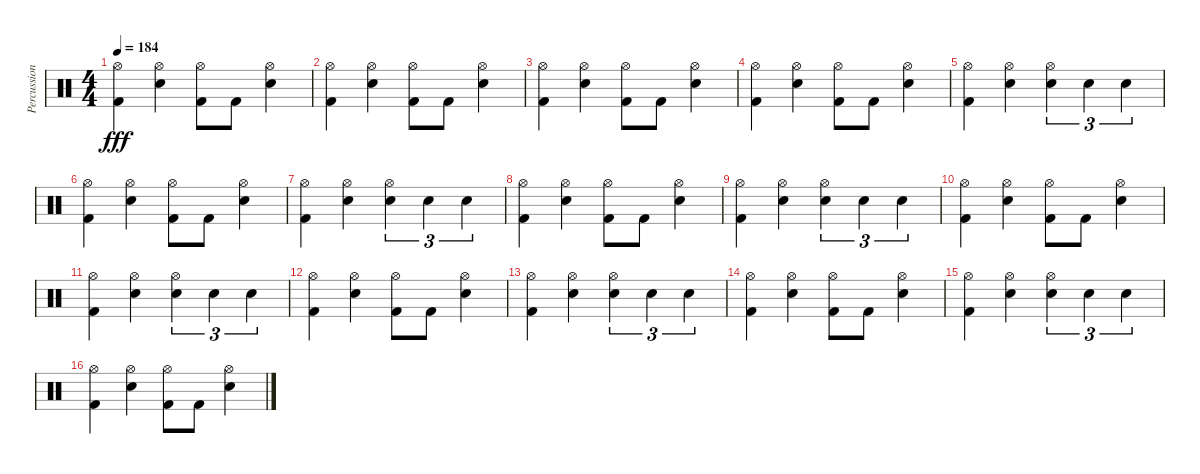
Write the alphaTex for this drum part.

\track ("Percussion" "Percussion") {instrument percussion}
\staff {score}
\articulation defaults
\ts (4 4)
\tempo 184
\clef neutral
\ks c
("Hi-Hat (open)" "Kick (hit) 2").4{dy fff} ("Hi-Hat (open)" "Snare (hit) 2").4 ("Hi-Hat (open)" "Kick (hit) 2").8 "Kick (hit) 2".8 ("Hi-Hat (open)" "Snare (hit) 2").4 |
("Hi-Hat (open)" "Kick (hit) 2").4 ("Hi-Hat (open)" "Snare (hit) 2").4 ("Hi-Hat (open)" "Kick (hit) 2").8 "Kick (hit) 2".8 ("Hi-Hat (open)" "Snare (hit) 2").4 |
("Hi-Hat (open)" "Kick (hit) 2").4 ("Hi-Hat (open)" "Snare (hit) 2").4 ("Hi-Hat (open)" "Kick (hit) 2").8 "Kick (hit) 2".8 ("Hi-Hat (open)" "Snare (hit) 2").4 |
("Hi-Hat (open)" "Kick (hit) 2").4 ("Hi-Hat (open)" "Snare (hit) 2").4 ("Hi-Hat (open)" "Kick (hit) 2").8 "Kick (hit) 2".8 ("Hi-Hat (open)" "Snare (hit) 2").4 |
("Hi-Hat (open)" "Kick (hit) 2").4 ("Hi-Hat (open)" "Snare (hit) 2").4 ("Hi-Hat (open)" "Snare (hit) 2").4{tu (3 2)} "Snare (hit) 2".4{tu (3 2)} "Snare (hit) 2".4{tu (3 2)} |
("Hi-Hat (open)" "Kick (hit) 2").4 ("Hi-Hat (open)" "Snare (hit) 2").4 ("Hi-Hat (open)" "Kick (hit) 2").8 "Kick (hit) 2".8 ("Hi-Hat (open)" "Snare (hit) 2").4 |
("Hi-Hat (open)" "Kick (hit) 2").4 ("Hi-Hat (open)" "Snare (hit) 2").4 ("Hi-Hat (open)" "Snare (hit) 2").4{tu (3 2)} "Snare (hit) 2".4{tu (3 2)} "Snare (hit) 2".4{tu (3 2)} |
("Hi-Hat (open)" "Kick (hit) 2").4 ("Hi-Hat (open)" "Snare (hit) 2").4 ("Hi-Hat (open)" "Kick (hit) 2").8 "Kick (hit) 2".8 ("Hi-Hat (open)" "Snare (hit) 2").4 |
("Hi-Hat (open)" "Kick (hit) 2").4 ("Hi-Hat (open)" "Snare (hit) 2").4 ("Hi-Hat (open)" "Snare (hit) 2").4{tu (3 2)} "Snare (hit) 2".4{tu (3 2)} "Snare (hit) 2".4{tu (3 2)} |
("Hi-Hat (open)" "Kick (hit) 2").4 ("Hi-Hat (open)" "Snare (hit) 2").4 ("Hi-Hat (open)" "Kick (hit) 2").8 "Kick (hit) 2".8 ("Hi-Hat (open)" "Snare (hit) 2").4 |
("Hi-Hat (open)" "Kick (hit) 2").4 ("Hi-Hat (open)" "Snare (hit) 2").4 ("Hi-Hat (open)" "Snare (hit) 2").4{tu (3 2)} "Snare (hit) 2".4{tu (3 2)} "Snare (hit) 2".4{tu (3 2)} |
("Hi-Hat (open)" "Kick (hit) 2").4 ("Hi-Hat (open)" "Snare (hit) 2").4 ("Hi-Hat (open)" "Kick (hit) 2").8 "Kick (hit) 2".8 ("Hi-Hat (open)" "Snare (hit) 2").4 |
("Hi-Hat (open)" "Kick (hit) 2").4 ("Hi-Hat (open)" "Snare (hit) 2").4 ("Hi-Hat (open)" "Snare (hit) 2").4{tu (3 2)} "Snare (hit) 2".4{tu (3 2)} "Snare (hit) 2".4{tu (3 2)} |
("Hi-Hat (open)" "Kick (hit) 2").4 ("Hi-Hat (open)" "Snare (hit) 2").4 ("Hi-Hat (open)" "Kick (hit) 2").8 "Kick (hit) 2".8 ("Hi-Hat (open)" "Snare (hit) 2").4 |
("Hi-Hat (open)" "Kick (hit) 2").4 ("Hi-Hat (open)" "Snare (hit) 2").4 ("Hi-Hat (open)" "Snare (hit) 2").4{tu (3 2)} "Snare (hit) 2".4{tu (3 2)} "Snare (hit) 2".4{tu (3 2)} |
("Hi-Hat (open)" "Kick (hit) 2").4 ("Hi-Hat (open)" "Snare (hit) 2").4 ("Hi-Hat (open)" "Kick (hit) 2").8 "Kick (hit) 2".8 ("Hi-Hat (open)" "Snare (hit) 2").4
